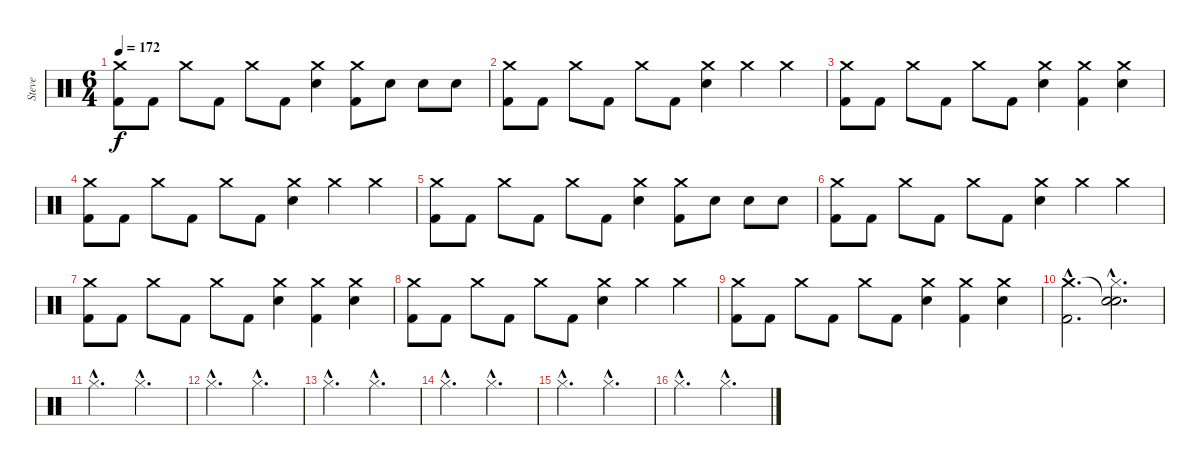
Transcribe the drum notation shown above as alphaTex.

\track ("Steve" "Steve") {instrument percussion}
\staff {score}
\articulation defaults
\ts (6 4)
\tempo 172
\clef neutral
\ks c
("Crash medium (hit)" "Kick (hit) 2").8{dy f} "Kick (hit) 2".8 "Crash medium (hit)".8 "Kick (hit) 2".8 "Crash medium (hit)".8 "Kick (hit) 2".8 ("Crash medium (hit)" "Electric Snare (hit)").4 ("Crash medium (hit)" "Kick (hit) 2").8 "Electric Snare (hit)".8 "Electric Snare (hit)".8 "Electric Snare (hit)".8 |
("Crash medium (hit)" "Kick (hit) 2").8 "Kick (hit) 2".8 "Crash medium (hit)".8 "Kick (hit) 2".8 "Crash medium (hit)".8 "Kick (hit) 2".8 ("Crash medium (hit)" "Electric Snare (hit)").4 "Crash medium (hit)".4 "Crash medium (hit)".4 |
("Crash medium (hit)" "Kick (hit) 2").8 "Kick (hit) 2".8 "Crash medium (hit)".8 "Kick (hit) 2".8 "Crash medium (hit)".8 "Kick (hit) 2".8 ("Crash medium (hit)" "Electric Snare (hit)").4 ("Crash medium (hit)" "Kick (hit) 2").4 ("Crash medium (hit)" "Electric Snare (hit)").4 |
("Crash medium (hit)" "Kick (hit) 2").8 "Kick (hit) 2".8 "Crash medium (hit)".8 "Kick (hit) 2".8 "Crash medium (hit)".8 "Kick (hit) 2".8 ("Crash medium (hit)" "Electric Snare (hit)").4 "Crash medium (hit)".4 "Crash medium (hit)".4 |
("Crash medium (hit)" "Kick (hit) 2").8 "Kick (hit) 2".8 "Crash medium (hit)".8 "Kick (hit) 2".8 "Crash medium (hit)".8 "Kick (hit) 2".8 ("Crash medium (hit)" "Electric Snare (hit)").4 ("Crash medium (hit)" "Kick (hit) 2").8 "Electric Snare (hit)".8 "Electric Snare (hit)".8 "Electric Snare (hit)".8 |
("Crash medium (hit)" "Kick (hit) 2").8 "Kick (hit) 2".8 "Crash medium (hit)".8 "Kick (hit) 2".8 "Crash medium (hit)".8 "Kick (hit) 2".8 ("Crash medium (hit)" "Electric Snare (hit)").4 "Crash medium (hit)".4 "Crash medium (hit)".4 |
("Crash medium (hit)" "Kick (hit) 2").8 "Kick (hit) 2".8 "Crash medium (hit)".8 "Kick (hit) 2".8 "Crash medium (hit)".8 "Kick (hit) 2".8 ("Crash medium (hit)" "Electric Snare (hit)").4 ("Crash medium (hit)" "Kick (hit) 2").4 ("Crash medium (hit)" "Electric Snare (hit)").4 |
("Crash medium (hit)" "Kick (hit) 2").8 "Kick (hit) 2".8 "Crash medium (hit)".8 "Kick (hit) 2".8 "Crash medium (hit)".8 "Kick (hit) 2".8 ("Crash medium (hit)" "Electric Snare (hit)").4 "Crash medium (hit)".4 "Crash medium (hit)".4 |
("Crash medium (hit)" "Kick (hit) 2").8 "Kick (hit) 2".8 "Crash medium (hit)".8 "Kick (hit) 2".8 "Crash medium (hit)".8 "Kick (hit) 2".8 ("Crash medium (hit)" "Electric Snare (hit)").4 ("Crash medium (hit)" "Kick (hit) 2").4 ("Crash medium (hit)" "Electric Snare (hit)").4 |
("Crash medium (hit)"{hac} "Kick (hit) 2"{hac}).2{d} ("Snare (hit)"{hac t} "Hi-Hat (closed)"{hac} "Snare (hit)"{hac}).2{d} |
"Hi-Hat (closed)"{hac}.2{d} "Hi-Hat (closed)"{hac}.2{d} |
"Hi-Hat (closed)"{hac}.2{d} "Hi-Hat (closed)"{hac}.2{d} |
"Hi-Hat (closed)"{hac}.2{d} "Hi-Hat (closed)"{hac}.2{d} |
"Hi-Hat (closed)"{hac}.2{d} "Hi-Hat (closed)"{hac}.2{d} |
"Hi-Hat (closed)"{hac}.2{d} "Hi-Hat (closed)"{hac}.2{d} |
"Hi-Hat (closed)"{hac}.2{d} "Hi-Hat (closed)"{hac}.2{d}
